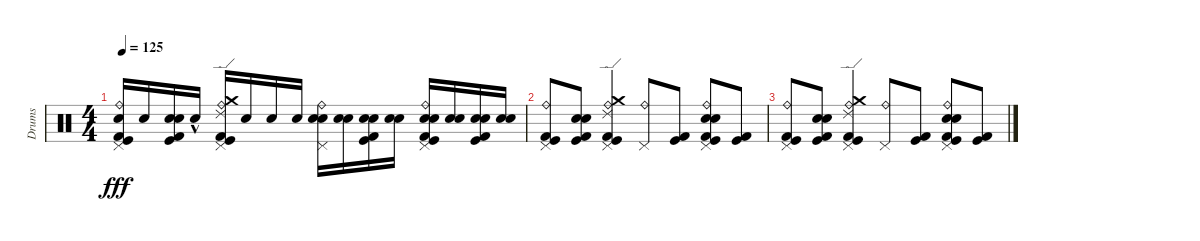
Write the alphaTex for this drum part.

\track ("Drums" "Drums") {instrument percussion}
\staff {score}
\articulation defaults
\ts (4 4)
\tempo 125
\clef neutral
\ks c
("Kick (hit) 2" "Kick (hit)" "Ride (bell)" "Electric Snare (hit)" "Pedal Hi-Hat (hit)").16{dy fff} "Electric Snare (hit)".16 ("Electric Snare (hit)" "Snare (hit) 2" "Kick (hit)" "Kick (hit) 2").16 "Electric Snare (hit)"{hac}.16 ("Pedal Hi-Hat (hit)" "Kick (hit) 2" "Kick (hit)" "Ride (bell)" "Crash medium (hit)" "Ride (edge) 2").16 "Electric Snare (hit)".16{volume 0} "Electric Snare (hit)".16 "Electric Snare (hit)".16 ("Pedal Hi-Hat (hit)" "Ride (bell)" "Electric Snare (hit)" "Snare (hit) 2").16 ("Electric Snare (hit)" "Snare (hit) 2").16 ("Kick (hit) 2" "Kick (hit)" "Electric Snare (hit)" "Snare (hit) 2").16 ("Electric Snare (hit)" "Snare (hit) 2").16 ("Pedal Hi-Hat (hit)" "Electric Snare (hit)" "Snare (hit) 2" "Kick (hit) 2" "Kick (hit)" "Ride (bell)").16 ("Electric Snare (hit)" "Snare (hit) 2").16 ("Kick (hit) 2" "Kick (hit)" "Electric Snare (hit)" "Snare (hit) 2").16 ("Electric Snare (hit)" "Snare (hit) 2").16 |
("Pedal Hi-Hat (hit)" "Kick (hit) 2" "Kick (hit)" "Ride (bell)").8 ("Electric Snare (hit)" "Snare (hit) 2" "Kick (hit)" "Kick (hit) 2").8 ("Pedal Hi-Hat (hit)" "Kick (hit) 2" "Kick (hit)" "Ride (bell)" "Crash medium (hit)" "Ride (edge) 2").4 ("Pedal Hi-Hat (hit)" "Ride (bell)").8 ("Kick (hit) 2" "Kick (hit)").8 ("Pedal Hi-Hat (hit)" "Electric Snare (hit)" "Snare (hit) 2" "Kick (hit) 2" "Kick (hit)" "Ride (bell)").8 ("Kick (hit) 2" "Kick (hit)").8 |
("Pedal Hi-Hat (hit)" "Kick (hit) 2" "Kick (hit)" "Ride (bell)").8 ("Electric Snare (hit)" "Snare (hit) 2" "Kick (hit)" "Kick (hit) 2").8 ("Pedal Hi-Hat (hit)" "Kick (hit) 2" "Kick (hit)" "Ride (bell)" "Crash medium (hit)" "Ride (edge) 2").4 ("Pedal Hi-Hat (hit)" "Ride (bell)").8 ("Kick (hit) 2" "Kick (hit)").8 ("Pedal Hi-Hat (hit)" "Electric Snare (hit)" "Snare (hit) 2" "Kick (hit) 2" "Kick (hit)" "Ride (bell)").8 ("Kick (hit) 2" "Kick (hit)").8
